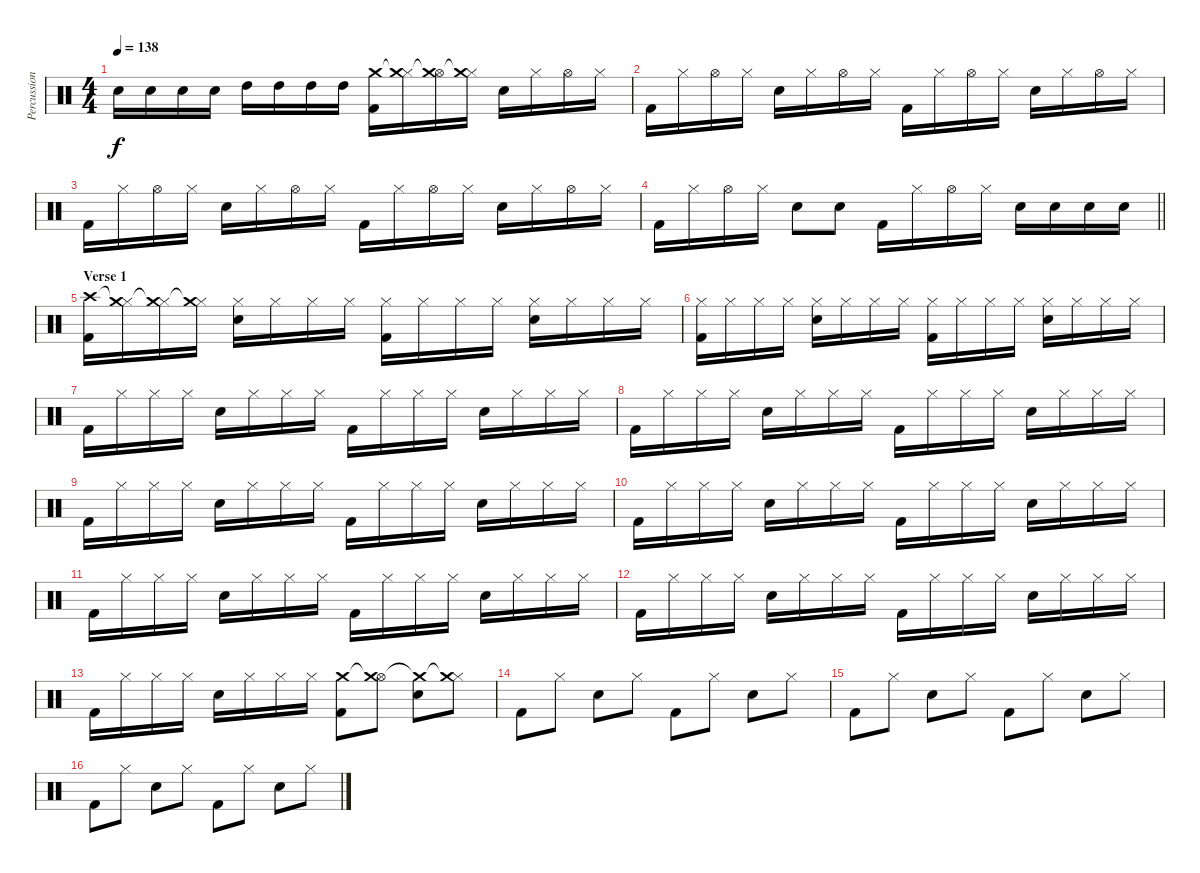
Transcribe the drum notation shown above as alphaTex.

\track ("Percussion" "Percussion") {instrument percussion}
\staff {score}
\articulation defaults
\ts (4 4)
\tempo 138
\clef neutral
\ks c "Electric Snare (hit)".16{dy f} "Electric Snare (hit)".16 "Electric Snare (hit)".16 "Electric Snare (hit)".16 "High Tom (hit)".16 "High Tom (hit)".16 "High Tom (hit)".16 "High Tom (hit)".16
("Kick (hit) 2" "Crash medium (hit)").16 ("Hi-Hat (closed)" "Crash medium (hit)"{t}).16 ("Hi-Hat (open)" "Crash medium (hit)"{t}).16 ("Hi-Hat (closed)" "Crash medium (hit)"{t}).16 "Electric Snare (hit)".16 "Hi-Hat (closed)".16 "Hi-Hat (open)".16 "Hi-Hat (closed)".16 |
"Kick (hit) 2".16 "Hi-Hat (closed)".16 "Hi-Hat (open)".16 "Hi-Hat (closed)".16 "Electric Snare (hit)".16 "Hi-Hat (closed)".16 "Hi-Hat (open)".16 "Hi-Hat (closed)".16 "Kick (hit) 2".16 "Hi-Hat (closed)".16 "Hi-Hat (open)".16 "Hi-Hat (closed)".16 "Electric Snare (hit)".16 "Hi-Hat (closed)".16 "Hi-Hat (open)".16 "Hi-Hat (closed)".16 |
"Kick (hit) 2".16 "Hi-Hat (closed)".16 "Hi-Hat (open)".16 "Hi-Hat (closed)".16 "Electric Snare (hit)".16 "Hi-Hat (closed)".16 "Hi-Hat (open)".16 "Hi-Hat (closed)".16 "Kick (hit) 2".16 "Hi-Hat (closed)".16 "Hi-Hat (open)".16 "Hi-Hat (closed)".16 "Electric Snare (hit)".16 "Hi-Hat (closed)".16 "Hi-Hat (open)".16 "Hi-Hat (closed)".16 |
\barLineRight lightlight "Kick (hit) 2".16 "Hi-Hat (closed)".16 "Hi-Hat (open)".16 "Hi-Hat (closed)".16 "Electric Snare (hit)".8 "Electric Snare (hit)".8 "Kick (hit) 2".16 "Hi-Hat (closed)".16 "Hi-Hat (open)".16 "Hi-Hat (closed)".16 "Electric Snare (hit)".16 "Electric Snare (hit)".16 "Electric Snare (hit)".16 "Electric Snare (hit)".16
|
\section ("" "Verse 1")
("Kick (hit) 2" "Crash high (hit)").16 ("Hi-Hat (closed)" "Crash medium (hit)"{t}).16 ("Hi-Hat (closed)" "Crash medium (hit)"{t}).16 ("Hi-Hat (closed)" "Crash medium (hit)"{t}).16 ("Electric Snare (hit)" "Hi-Hat (closed)").16 "Hi-Hat (closed)".16 "Hi-Hat (closed)".16 "Hi-Hat (closed)".16 ("Kick (hit) 2" "Hi-Hat (closed)").16 "Hi-Hat (closed)".16 "Hi-Hat (closed)".16 "Hi-Hat (closed)".16 ("Electric Snare (hit)" "Hi-Hat (closed)").16 "Hi-Hat (closed)".16 "Hi-Hat (closed)".16 "Hi-Hat (closed)".16 |
("Kick (hit) 2" "Hi-Hat (closed)").16 "Hi-Hat (closed)".16 "Hi-Hat (closed)".16 "Hi-Hat (closed)".16 ("Electric Snare (hit)" "Hi-Hat (closed)").16 "Hi-Hat (closed)".16 "Hi-Hat (closed)".16 "Hi-Hat (closed)".16 ("Kick (hit) 2" "Hi-Hat (closed)").16 "Hi-Hat (closed)".16 "Hi-Hat (closed)".16 "Hi-Hat (closed)".16 ("Electric Snare (hit)" "Hi-Hat (closed)").16 "Hi-Hat (closed)".16 "Hi-Hat (closed)".16 "Hi-Hat (closed)".16 |
"Kick (hit) 2".16 "Hi-Hat (closed)".16 "Hi-Hat (closed)".16 "Hi-Hat (closed)".16 "Electric Snare (hit)".16 "Hi-Hat (closed)".16 "Hi-Hat (closed)".16 "Hi-Hat (closed)".16 "Kick (hit) 2".16 "Hi-Hat (closed)".16 "Hi-Hat (closed)".16 "Hi-Hat (closed)".16 "Electric Snare (hit)".16 "Hi-Hat (closed)".16 "Hi-Hat (closed)".16 "Hi-Hat (closed)".16 |
"Kick (hit) 2".16 "Hi-Hat (closed)".16 "Hi-Hat (closed)".16 "Hi-Hat (closed)".16 "Electric Snare (hit)".16 "Hi-Hat (closed)".16 "Hi-Hat (closed)".16 "Hi-Hat (closed)".16 "Kick (hit) 2".16 "Hi-Hat (closed)".16 "Hi-Hat (closed)".16 "Hi-Hat (closed)".16 "Electric Snare (hit)".16 "Hi-Hat (closed)".16 "Hi-Hat (closed)".16 "Hi-Hat (closed)".16 |
"Kick (hit) 2".16 "Hi-Hat (closed)".16 "Hi-Hat (closed)".16 "Hi-Hat (closed)".16 "Electric Snare (hit)".16 "Hi-Hat (closed)".16 "Hi-Hat (closed)".16 "Hi-Hat (closed)".16 "Kick (hit) 2".16 "Hi-Hat (closed)".16 "Hi-Hat (closed)".16 "Hi-Hat (closed)".16 "Electric Snare (hit)".16 "Hi-Hat (closed)".16 "Hi-Hat (closed)".16 "Hi-Hat (closed)".16 |
"Kick (hit) 2".16 "Hi-Hat (closed)".16 "Hi-Hat (closed)".16 "Hi-Hat (closed)".16 "Electric Snare (hit)".16 "Hi-Hat (closed)".16 "Hi-Hat (closed)".16 "Hi-Hat (closed)".16 "Kick (hit) 2".16 "Hi-Hat (closed)".16 "Hi-Hat (closed)".16 "Hi-Hat (closed)".16 "Electric Snare (hit)".16 "Hi-Hat (closed)".16 "Hi-Hat (closed)".16 "Hi-Hat (closed)".16 |
"Kick (hit) 2".16 "Hi-Hat (closed)".16 "Hi-Hat (closed)".16 "Hi-Hat (closed)".16 "Electric Snare (hit)".16 "Hi-Hat (closed)".16 "Hi-Hat (closed)".16 "Hi-Hat (closed)".16 "Kick (hit) 2".16 "Hi-Hat (closed)".16 "Hi-Hat (closed)".16 "Hi-Hat (closed)".16 "Electric Snare (hit)".16 "Hi-Hat (closed)".16 "Hi-Hat (closed)".16 "Hi-Hat (closed)".16 |
"Kick (hit) 2".16 "Hi-Hat (closed)".16 "Hi-Hat (closed)".16 "Hi-Hat (closed)".16 "Electric Snare (hit)".16 "Hi-Hat (closed)".16 "Hi-Hat (closed)".16 "Hi-Hat (closed)".16 "Kick (hit) 2".16 "Hi-Hat (closed)".16 "Hi-Hat (closed)".16 "Hi-Hat (closed)".16 "Electric Snare (hit)".16 "Hi-Hat (closed)".16 "Hi-Hat (closed)".16 "Hi-Hat (closed)".16 |
"Kick (hit) 2".16 "Hi-Hat (closed)".16 "Hi-Hat (closed)".16 "Hi-Hat (closed)".16 "Electric Snare (hit)".16 "Hi-Hat (closed)".16 "Hi-Hat (closed)".16 "Hi-Hat (closed)".16 ("Kick (hit) 2" "Crash medium (hit)").8 ("Hi-Hat (open)" "Crash medium (hit)"{t}).8 ("Electric Snare (hit)" "Crash medium (hit)"{t}).8 ("Hi-Hat (closed)" "Crash medium (hit)"{t}).8 |
"Kick (hit) 2".8 "Hi-Hat (closed)".8 "Electric Snare (hit)".8 "Hi-Hat (closed)".8 "Kick (hit) 2".8 "Hi-Hat (closed)".8 "Electric Snare (hit)".8 "Hi-Hat (closed)".8 |
"Kick (hit) 2".8 "Hi-Hat (closed)".8 "Electric Snare (hit)".8 "Hi-Hat (closed)".8 "Kick (hit) 2".8 "Hi-Hat (closed)".8 "Electric Snare (hit)".8 "Hi-Hat (closed)".8 |
"Kick (hit) 2".8 "Hi-Hat (closed)".8 "Electric Snare (hit)".8 "Hi-Hat (closed)".8 "Kick (hit) 2".8 "Hi-Hat (closed)".8 "Electric Snare (hit)".8 "Hi-Hat (closed)".8
